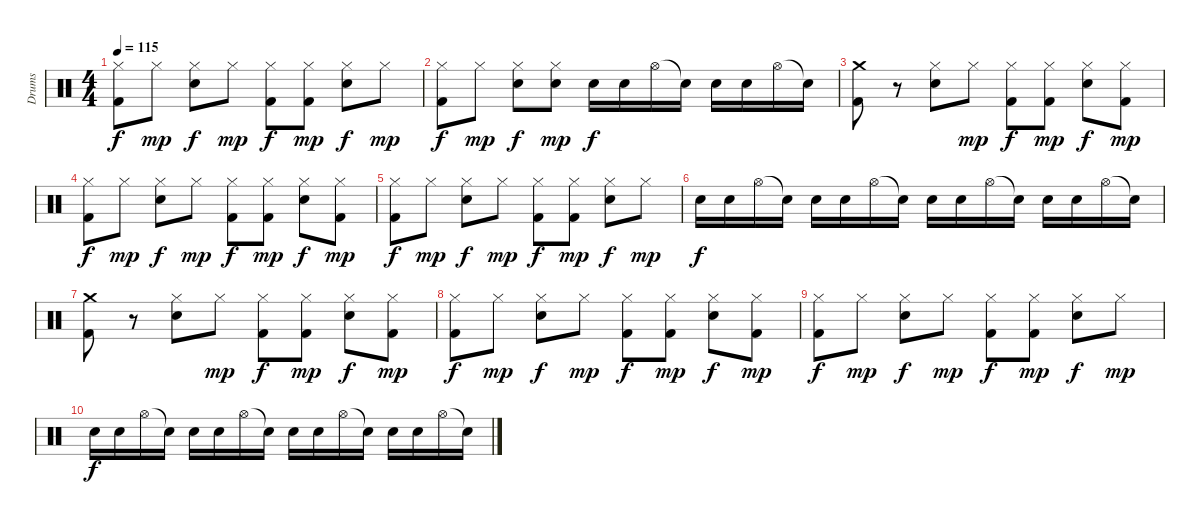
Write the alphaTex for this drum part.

\track ("Drums" "Drums") {instrument percussion}
\staff {score}
\articulation defaults
\ts (4 4)
\tempo 115
\clef neutral
\ks c
("Hi-Hat (closed)" "Kick (hit) 2").8{dy f} "Hi-Hat (closed)".8{dy mp} ("Hi-Hat (closed)" "Snare (hit) 2").8{dy f} "Hi-Hat (closed)".8{dy mp} ("Hi-Hat (closed)" "Kick (hit) 2").8{dy f} ("Hi-Hat (closed)" "Kick (hit) 2").8{dy mp} ("Hi-Hat (closed)" "Snare (hit) 2").8{dy f} "Hi-Hat (closed)".8{dy mp} |
("Hi-Hat (closed)" "Kick (hit) 2").8{dy f} "Hi-Hat (closed)".8{dy mp} ("Hi-Hat (closed)" "Snare (hit) 2").8{dy f} ("Hi-Hat (closed)" "Snare (hit) 2").8{dy mp} "Snare (hit) 2".16{dy f} "Snare (hit) 2".16 "Hi-Hat (open)".16 "Snare (hit)"{t}.16 "Snare (hit) 2".16 "Snare (hit) 2".16 "Hi-Hat (open)".16 "Snare (hit)"{t}.16 |
("Crash medium (hit)" "Kick (hit) 2").8 r.8 ("Hi-Hat (closed)" "Snare (hit) 2").8 "Hi-Hat (closed)".8{dy mp} ("Hi-Hat (closed)" "Kick (hit) 2").8{dy f} ("Hi-Hat (closed)" "Kick (hit) 2").8{dy mp} ("Hi-Hat (closed)" "Snare (hit) 2").8{dy f} ("Hi-Hat (closed)" "Kick (hit) 2").8{dy mp} |
("Hi-Hat (closed)" "Kick (hit) 2").8{dy f} "Hi-Hat (closed)".8{dy mp} ("Hi-Hat (closed)" "Snare (hit) 2").8{dy f} "Hi-Hat (closed)".8{dy mp} ("Hi-Hat (closed)" "Kick (hit) 2").8{dy f} ("Hi-Hat (closed)" "Kick (hit) 2").8{dy mp} ("Hi-Hat (closed)" "Snare (hit) 2").8{dy f} ("Hi-Hat (closed)" "Kick (hit) 2").8{dy mp} |
("Hi-Hat (closed)" "Kick (hit) 2").8{dy f} "Hi-Hat (closed)".8{dy mp} ("Hi-Hat (closed)" "Snare (hit) 2").8{dy f} "Hi-Hat (closed)".8{dy mp} ("Hi-Hat (closed)" "Kick (hit) 2").8{dy f} ("Hi-Hat (closed)" "Kick (hit) 2").8{dy mp} ("Hi-Hat (closed)" "Snare (hit) 2").8{dy f} "Hi-Hat (closed)".8{dy mp} |
"Snare (hit) 2".16{dy f} "Snare (hit) 2".16 "Hi-Hat (open)".16 "Snare (hit)"{t}.16 "Snare (hit) 2".16 "Snare (hit) 2".16 "Hi-Hat (open)".16 "Snare (hit)"{t}.16 "Snare (hit) 2".16 "Snare (hit) 2".16 "Hi-Hat (open)".16 "Snare (hit)"{t}.16 "Snare (hit) 2".16 "Snare (hit) 2".16 "Hi-Hat (open)".16 "Snare (hit)"{t}.16 |
("Crash medium (hit)" "Kick (hit) 2").8 r.8 ("Hi-Hat (closed)" "Snare (hit) 2").8 "Hi-Hat (closed)".8{dy mp} ("Hi-Hat (closed)" "Kick (hit) 2").8{dy f} ("Hi-Hat (closed)" "Kick (hit) 2").8{dy mp} ("Hi-Hat (closed)" "Snare (hit) 2").8{dy f} ("Hi-Hat (closed)" "Kick (hit) 2").8{dy mp} |
("Hi-Hat (closed)" "Kick (hit) 2").8{dy f} "Hi-Hat (closed)".8{dy mp} ("Hi-Hat (closed)" "Snare (hit) 2").8{dy f} "Hi-Hat (closed)".8{dy mp} ("Hi-Hat (closed)" "Kick (hit) 2").8{dy f} ("Hi-Hat (closed)" "Kick (hit) 2").8{dy mp} ("Hi-Hat (closed)" "Snare (hit) 2").8{dy f} ("Hi-Hat (closed)" "Kick (hit) 2").8{dy mp} |
("Hi-Hat (closed)" "Kick (hit) 2").8{dy f} "Hi-Hat (closed)".8{dy mp} ("Hi-Hat (closed)" "Snare (hit) 2").8{dy f} "Hi-Hat (closed)".8{dy mp} ("Hi-Hat (closed)" "Kick (hit) 2").8{dy f} ("Hi-Hat (closed)" "Kick (hit) 2").8{dy mp} ("Hi-Hat (closed)" "Snare (hit) 2").8{dy f} "Hi-Hat (closed)".8{dy mp} |
"Snare (hit) 2".16{dy f} "Snare (hit) 2".16 "Hi-Hat (open)".16 "Snare (hit)"{t}.16 "Snare (hit) 2".16 "Snare (hit) 2".16 "Hi-Hat (open)".16 "Snare (hit)"{t}.16 "Snare (hit) 2".16 "Snare (hit) 2".16 "Hi-Hat (open)".16 "Snare (hit)"{t}.16 "Snare (hit) 2".16 "Snare (hit) 2".16 "Hi-Hat (open)".16 "Snare (hit)"{t}.16
